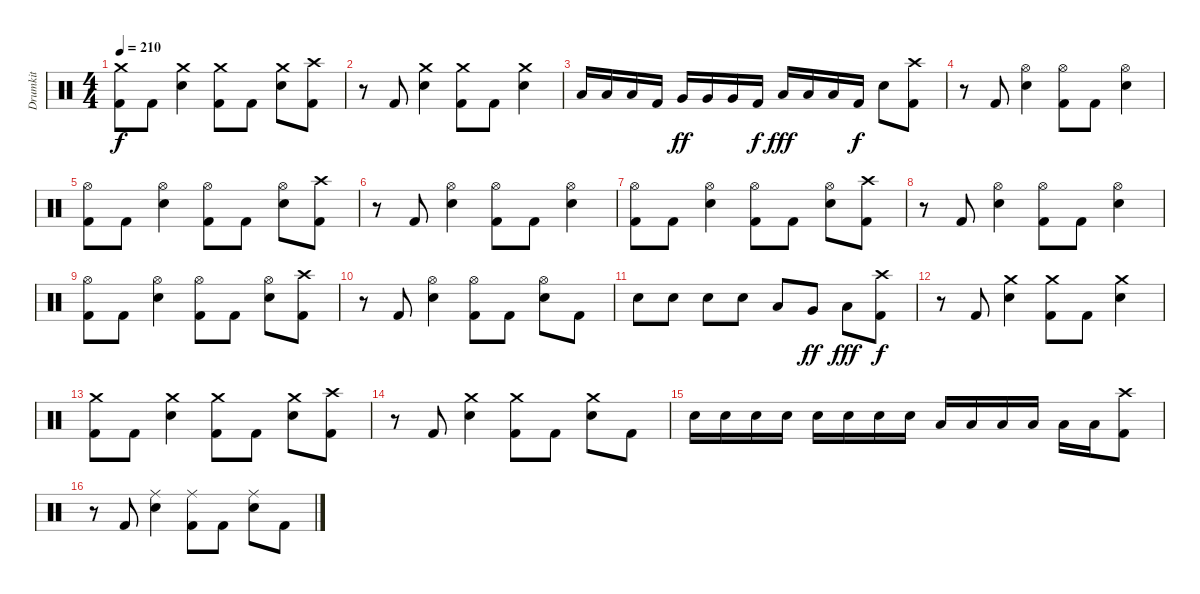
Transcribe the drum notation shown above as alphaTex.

\track ("Drumkit" "Drumkit") {instrument percussion}
\staff {score}
\articulation defaults
\ts (4 4)
\tempo 210
\clef neutral
\ks c
("Crash medium (hit)" "Kick (hit) 2").8{dy f} "Kick (hit) 2".8 ("Crash medium (hit)" "Electric Snare (hit)").4 ("Crash medium (hit)" "Kick (hit) 2").8 "Kick (hit) 2".8 ("Crash medium (hit)" "Electric Snare (hit)").8 ("Crash high (hit)" "Kick (hit) 2").8 |
r.8 "Kick (hit) 2".8 ("Crash medium (hit)" "Electric Snare (hit)").4 ("Crash medium (hit)" "Kick (hit) 2").8 "Kick (hit) 2".8 ("Crash medium (hit)" "Electric Snare (hit)").4 |
"Low Tom (hit)".16 "Low Tom (hit)".16 "Low Tom (hit)".16 "Kick (hit) 2".16 "Very Low Tom (hit)".16{dy ff} "Very Low Tom (hit)".16 "Very Low Tom (hit)".16 "Kick (hit) 2".16{dy f} "Low Floor Tom (hit)".16{dy fff} "Low Floor Tom (hit)".16 "Low Floor Tom (hit)".16 "Kick (hit) 2".16{dy f} "Electric Snare (hit)".8 ("Crash high (hit)" "Kick (hit) 2").8 |
r.8 "Kick (hit) 2".8 ("Hi-Hat (open)" "Electric Snare (hit)").4 ("Hi-Hat (open)" "Kick (hit) 2").8 "Kick (hit) 2".8 ("Hi-Hat (open)" "Electric Snare (hit)").4 |
("Hi-Hat (open)" "Kick (hit) 2").8 "Kick (hit) 2".8 ("Hi-Hat (open)" "Electric Snare (hit)").4 ("Hi-Hat (open)" "Kick (hit) 2").8 "Kick (hit) 2".8 ("Hi-Hat (open)" "Electric Snare (hit)").8 ("Crash high (hit)" "Kick (hit) 2").8 |
r.8 "Kick (hit) 2".8 ("Hi-Hat (open)" "Electric Snare (hit)").4 ("Hi-Hat (open)" "Kick (hit) 2").8 "Kick (hit) 2".8 ("Hi-Hat (open)" "Electric Snare (hit)").4 |
("Hi-Hat (open)" "Kick (hit) 2").8 "Kick (hit) 2".8 ("Hi-Hat (open)" "Electric Snare (hit)").4 ("Hi-Hat (open)" "Kick (hit) 2").8 "Kick (hit) 2".8 ("Hi-Hat (open)" "Electric Snare (hit)").8 ("Crash high (hit)" "Kick (hit) 2").8 |
r.8 "Kick (hit) 2".8 ("Hi-Hat (open)" "Electric Snare (hit)").4 ("Hi-Hat (open)" "Kick (hit) 2").8 "Kick (hit) 2".8 ("Hi-Hat (open)" "Electric Snare (hit)").4 |
("Hi-Hat (open)" "Kick (hit) 2").8 "Kick (hit) 2".8 ("Hi-Hat (open)" "Electric Snare (hit)").4 ("Hi-Hat (open)" "Kick (hit) 2").8 "Kick (hit) 2".8 ("Hi-Hat (open)" "Electric Snare (hit)").8 ("Crash high (hit)" "Kick (hit) 2").8 |
r.8 "Kick (hit) 2".8 ("Hi-Hat (open)" "Electric Snare (hit)").4 ("Hi-Hat (open)" "Kick (hit) 2").8 "Kick (hit) 2".8 ("Hi-Hat (open)" "Electric Snare (hit)").8 "Kick (hit) 2".8 |
"Electric Snare (hit)".8 "Electric Snare (hit)".8 "Electric Snare (hit)".8 "Electric Snare (hit)".8 "Low Tom (hit)".8 "Very Low Tom (hit)".8{dy ff} "Low Floor Tom (hit)".8{dy fff} ("Crash high (hit)" "Kick (hit) 2").8{dy f} |
r.8 "Kick (hit) 2".8 ("Crash medium (hit)" "Electric Snare (hit)").4 ("Crash medium (hit)" "Kick (hit) 2").8 "Kick (hit) 2".8 ("Crash medium (hit)" "Electric Snare (hit)").4 |
("Crash medium (hit)" "Kick (hit) 2").8 "Kick (hit) 2".8 ("Crash medium (hit)" "Electric Snare (hit)").4 ("Crash medium (hit)" "Kick (hit) 2").8 "Kick (hit) 2".8 ("Crash medium (hit)" "Electric Snare (hit)").8 ("Crash high (hit)" "Kick (hit) 2").8 |
r.8 "Kick (hit) 2".8 ("Crash medium (hit)" "Electric Snare (hit)").4 ("Crash medium (hit)" "Kick (hit) 2").8 "Kick (hit) 2".8 ("Crash medium (hit)" "Electric Snare (hit)").8 "Kick (hit) 2".8 |
"Electric Snare (hit)".16 "Electric Snare (hit)".16 "Electric Snare (hit)".16 "Electric Snare (hit)".16 "Electric Snare (hit)".16 "Electric Snare (hit)".16 "Electric Snare (hit)".16 "Electric Snare (hit)".16 "Low Tom (hit)".16 "Low Tom (hit)".16 "Low Tom (hit)".16 "Low Tom (hit)".16 "Low Tom (hit)".16 "Low Tom (hit)".16 ("Crash high (hit)" "Kick (hit) 2").8 |
r.8 "Kick (hit) 2".8 ("Ride (middle)" "Electric Snare (hit)").4 ("Ride (middle)" "Kick (hit) 2").8 "Kick (hit) 2".8 ("Ride (middle)" "Electric Snare (hit)").8 "Kick (hit) 2".8
